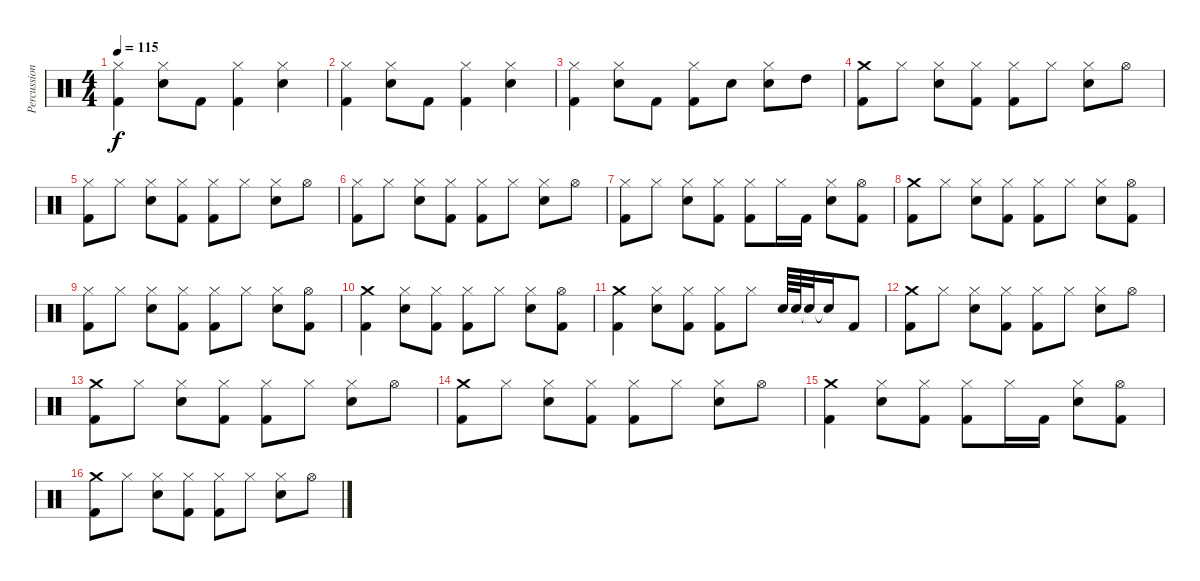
\track ("Percussion" "Percussion") {instrument percussion}
\staff {score}
\articulation defaults
\ts (4 4)
\tempo 115
\clef neutral
\ks c
("Hi-Hat (closed)" "Kick (hit) 2").4{dy f} ("Hi-Hat (closed)" "Electric Snare (hit)").8 "Kick (hit) 2".8 ("Hi-Hat (closed)" "Kick (hit) 2").4 ("Hi-Hat (closed)" "Electric Snare (hit)").4 |
("Hi-Hat (closed)" "Kick (hit) 2").4 ("Hi-Hat (closed)" "Electric Snare (hit)").8 "Kick (hit) 2".8 ("Hi-Hat (closed)" "Kick (hit) 2").4 ("Hi-Hat (closed)" "Electric Snare (hit)").4 |
("Hi-Hat (closed)" "Kick (hit) 2").4 ("Hi-Hat (closed)" "Electric Snare (hit)").8 "Kick (hit) 2".8 ("Hi-Hat (closed)" "Kick (hit) 2").8 "Electric Snare (hit)".8 ("Hi-Hat (closed)" "Electric Snare (hit)").8 "High Tom (hit)".8 |
("Crash medium (hit)" "Kick (hit) 2").8 "Hi-Hat (closed)".8 ("Hi-Hat (closed)" "Electric Snare (hit)").8 ("Hi-Hat (closed)" "Kick (hit) 2").8 ("Hi-Hat (closed)" "Kick (hit) 2").8 "Hi-Hat (closed)".8 ("Hi-Hat (closed)" "Electric Snare (hit)").8 "Hi-Hat (open)".8 |
("Hi-Hat (closed)" "Kick (hit) 2").8 "Hi-Hat (closed)".8 ("Hi-Hat (closed)" "Electric Snare (hit)").8 ("Hi-Hat (closed)" "Kick (hit) 2").8 ("Hi-Hat (closed)" "Kick (hit) 2").8 "Hi-Hat (closed)".8 ("Hi-Hat (closed)" "Electric Snare (hit)").8 "Hi-Hat (open)".8 |
("Hi-Hat (closed)" "Kick (hit) 2").8 "Hi-Hat (closed)".8 ("Hi-Hat (closed)" "Electric Snare (hit)").8 ("Hi-Hat (closed)" "Kick (hit) 2").8 ("Hi-Hat (closed)" "Kick (hit) 2").8 "Hi-Hat (closed)".8 ("Hi-Hat (closed)" "Electric Snare (hit)").8 "Hi-Hat (open)".8 |
("Hi-Hat (closed)" "Kick (hit) 2").8 "Hi-Hat (closed)".8 ("Hi-Hat (closed)" "Electric Snare (hit)").8 ("Hi-Hat (closed)" "Kick (hit) 2").8 ("Hi-Hat (closed)" "Kick (hit) 2").8 "Hi-Hat (closed)".16 "Kick (hit) 2".16 ("Hi-Hat (closed)" "Electric Snare (hit)").8 ("Hi-Hat (open)" "Kick (hit) 2").8 |
("Crash medium (hit)" "Kick (hit) 2").8 "Hi-Hat (closed)".8 ("Hi-Hat (closed)" "Electric Snare (hit)").8 ("Hi-Hat (closed)" "Kick (hit) 2").8 ("Hi-Hat (closed)" "Kick (hit) 2").8 "Hi-Hat (closed)".8 ("Hi-Hat (closed)" "Electric Snare (hit)").8 ("Hi-Hat (open)" "Kick (hit) 2").8 |
("Hi-Hat (closed)" "Kick (hit) 2").8 "Hi-Hat (closed)".8 ("Hi-Hat (closed)" "Electric Snare (hit)").8 ("Hi-Hat (closed)" "Kick (hit) 2").8 ("Hi-Hat (closed)" "Kick (hit) 2").8 "Hi-Hat (closed)".8 ("Hi-Hat (closed)" "Electric Snare (hit)").8 ("Hi-Hat (open)" "Kick (hit) 2").8 |
("Crash medium (hit)" "Kick (hit) 2").4 ("Hi-Hat (closed)" "Electric Snare (hit)").8 ("Hi-Hat (closed)" "Kick (hit) 2").8 ("Hi-Hat (closed)" "Kick (hit) 2").8 "Hi-Hat (closed)".8 ("Hi-Hat (closed)" "Electric Snare (hit)").8 ("Hi-Hat (open)" "Kick (hit) 2").8 |
("Crash medium (hit)" "Kick (hit) 2").4 ("Hi-Hat (closed)" "Electric Snare (hit)").8 ("Hi-Hat (closed)" "Kick (hit) 2").8 ("Hi-Hat (closed)" "Kick (hit) 2").8 "Hi-Hat (closed)".8 "Electric Snare (hit)".64 "Electric Snare (hit)".64 "Snare (hit)"{t}.32 "Snare (hit)"{t}.16 "Kick (hit) 2".8 |
("Crash medium (hit)" "Kick (hit) 2").8 "Hi-Hat (closed)".8 ("Hi-Hat (closed)" "Electric Snare (hit)").8 ("Hi-Hat (closed)" "Kick (hit) 2").8 ("Hi-Hat (closed)" "Kick (hit) 2").8 "Hi-Hat (closed)".8 ("Hi-Hat (closed)" "Electric Snare (hit)").8 "Hi-Hat (open)".8 |
("Crash medium (hit)" "Kick (hit) 2").8 "Hi-Hat (closed)".8 ("Hi-Hat (closed)" "Electric Snare (hit)").8 ("Hi-Hat (closed)" "Kick (hit) 2").8 ("Hi-Hat (closed)" "Kick (hit) 2").8 "Hi-Hat (closed)".8 ("Hi-Hat (closed)" "Electric Snare (hit)").8 "Hi-Hat (open)".8 |
("Crash medium (hit)" "Kick (hit) 2").8 "Hi-Hat (closed)".8 ("Hi-Hat (closed)" "Electric Snare (hit)").8 ("Hi-Hat (closed)" "Kick (hit) 2").8 ("Hi-Hat (closed)" "Kick (hit) 2").8 "Hi-Hat (closed)".8 ("Hi-Hat (closed)" "Electric Snare (hit)").8 "Hi-Hat (open)".8 |
("Crash medium (hit)" "Kick (hit) 2").4 ("Hi-Hat (closed)" "Electric Snare (hit)").8 ("Hi-Hat (closed)" "Kick (hit) 2").8 ("Hi-Hat (closed)" "Kick (hit) 2").8 "Hi-Hat (closed)".16 "Kick (hit) 2".16 ("Hi-Hat (closed)" "Electric Snare (hit)").8 ("Hi-Hat (open)" "Kick (hit) 2").8 |
("Crash medium (hit)" "Kick (hit) 2").8 "Hi-Hat (closed)".8 ("Hi-Hat (closed)" "Electric Snare (hit)").8 ("Hi-Hat (closed)" "Kick (hit) 2").8 ("Hi-Hat (closed)" "Kick (hit) 2").8 "Hi-Hat (closed)".8 ("Hi-Hat (closed)" "Electric Snare (hit)").8 "Hi-Hat (open)".8
